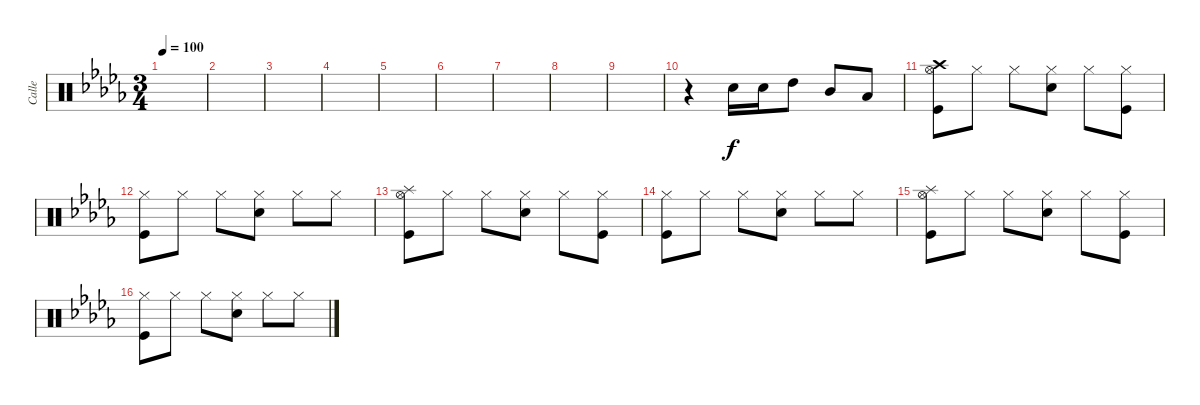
\track ("Calle" "Calle") {instrument percussion}
\staff {score}
\articulation defaults
\ts (3 4)
\tempo 100
\clef neutral
\ks bbminor
|
|
|
|
|
|
|
|
|
r.4 "Electric Snare (hit)".16 "Electric Snare (hit)".16 "High Tom (hit)".8 "Mid Tom (hit)".8 "Low Tom (hit)".8 |
("Crash high (hit)" "Hi-Hat (open)" "Kick (hit)").8 "Hi-Hat (closed)".8 "Hi-Hat (closed)".8 ("Hi-Hat (closed)" "Electric Snare (hit)").8 "Hi-Hat (closed)".8 ("Hi-Hat (closed)" "Kick (hit)").8 |
("Hi-Hat (closed)" "Kick (hit)").8 "Hi-Hat (closed)".8 "Hi-Hat (closed)".8 ("Hi-Hat (closed)" "Electric Snare (hit)").8 "Hi-Hat (closed)".8 "Hi-Hat (closed)".8 |
("Splash (hit)" "Hi-Hat (open)" "Kick (hit)").8 "Hi-Hat (closed)".8 "Hi-Hat (closed)".8 ("Hi-Hat (closed)" "Electric Snare (hit)").8 "Hi-Hat (closed)".8 ("Hi-Hat (closed)" "Kick (hit)").8 |
("Hi-Hat (closed)" "Kick (hit)").8 "Hi-Hat (closed)".8 "Hi-Hat (closed)".8 ("Hi-Hat (closed)" "Electric Snare (hit)").8 "Hi-Hat (closed)".8 "Hi-Hat (closed)".8 |
("Splash (hit)" "Hi-Hat (open)" "Kick (hit)").8 "Hi-Hat (closed)".8 "Hi-Hat (closed)".8 ("Hi-Hat (closed)" "Electric Snare (hit)").8 "Hi-Hat (closed)".8 ("Hi-Hat (closed)" "Kick (hit)").8 |
("Hi-Hat (closed)" "Kick (hit)").8 "Hi-Hat (closed)".8 "Hi-Hat (closed)".8 ("Hi-Hat (closed)" "Electric Snare (hit)").8 "Hi-Hat (closed)".8 "Hi-Hat (closed)".8
